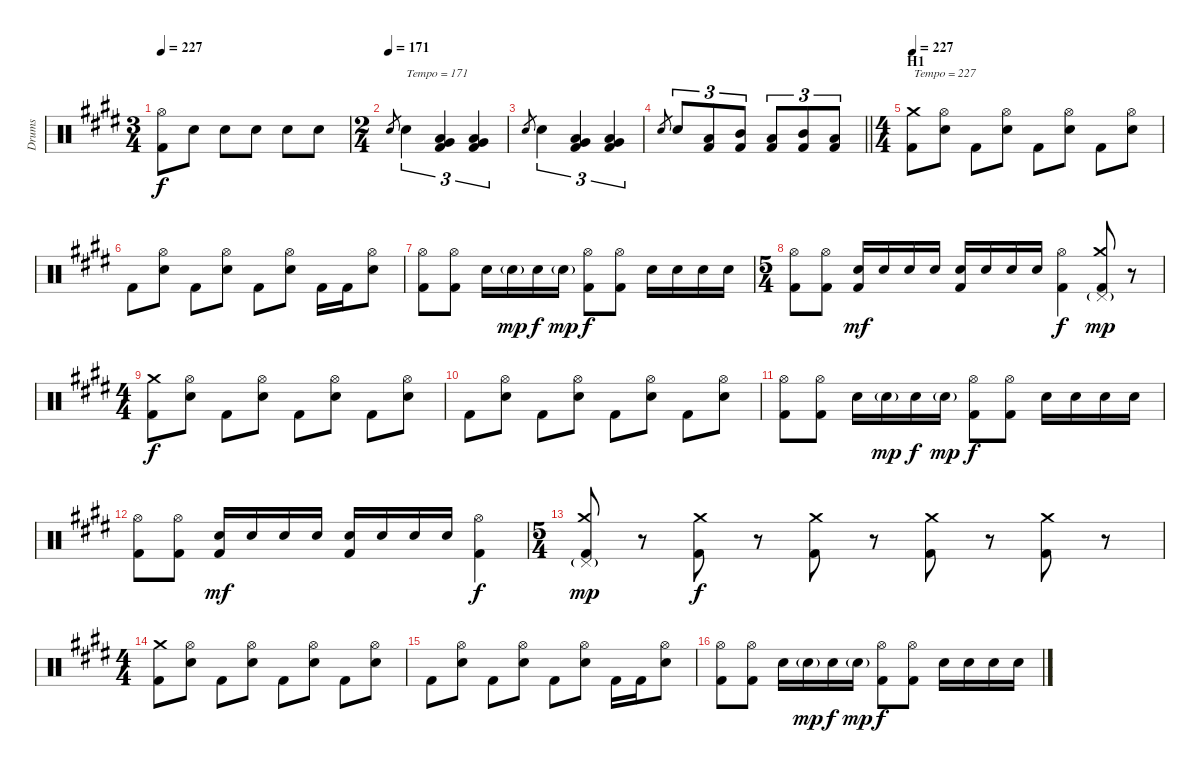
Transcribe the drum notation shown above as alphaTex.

\track ("Drums" "Drums") {instrument percussion}
\staff {score}
\articulation defaults
\ts (3 4)
\tempo 227
\clef neutral
\ks c#minor
("Hi-Hat (open)" "Kick (hit) 2").8{dy f} "Snare (hit) 2".8 "Snare (hit) 2".8 "Snare (hit) 2".8 "Snare (hit) 2".8 "Snare (hit) 2".8 |
\ts (2 4)
\tempo (171)
"Snare (hit) 2".8{gr} "Snare (hit) 2".4{tu (3 2) txt "Tempo = 171"} ("Low Tom (hit)" "Very Low Tom (hit)" "Kick (hit) 2").4{tu (3 2)} ("Low Tom (hit)" "Very Low Tom (hit)" "Kick (hit) 2").4{tu (3 2)} |
"Snare (hit) 2".8{gr} "Snare (hit) 2".4{tu (3 2)} ("Low Tom (hit)" "Very Low Tom (hit)" "Kick (hit) 2").4{tu (3 2)} ("Low Tom (hit)" "Very Low Tom (hit)" "Kick (hit) 2").4{tu (3 2)} |
\barLineRight lightlight "Snare (hit) 2".8{gr} "Snare (hit) 2".8{tu (3 2)}
("Low Tom (hit)" "Kick (hit) 2").8{tu (3 2)} ("Mid Tom (hit)" "Kick (hit) 2").8{tu (3 2)} ("Low Tom (hit)" "Kick (hit) 2").8{tu (3 2)} ("Mid Tom (hit)" "Kick (hit) 2").8{tu (3 2)} ("Low Tom (hit)" "Kick (hit) 2").8{tu (3 2)} |
\ts (4 4)
\section ("" "H1")
\tempo 227
("Crash medium (hit)" "Kick (hit) 2").8{txt "Tempo = 227"} ("Hi-Hat (open)" "Snare (hit) 2").8 "Kick (hit) 2".8 ("Hi-Hat (open)" "Snare (hit) 2").8 "Kick (hit) 2".8 ("Hi-Hat (open)" "Snare (hit) 2").8 "Kick (hit) 2".8 ("Hi-Hat (open)" "Snare (hit) 2").8 |
"Kick (hit) 2".8 ("Hi-Hat (open)" "Snare (hit) 2").8 "Kick (hit) 2".8 ("Hi-Hat (open)" "Snare (hit) 2").8 "Kick (hit) 2".8 ("Hi-Hat (open)" "Snare (hit) 2").8 "Kick (hit) 2".16 "Kick (hit) 2".16 ("Hi-Hat (open)" "Snare (hit) 2").8 |
("Hi-Hat (open)" "Kick (hit) 2").8 ("Hi-Hat (open)" "Kick (hit) 2").8 "Snare (hit) 2".16 "Snare (hit) 2"{g}.16{dy mp} "Snare (hit) 2".16{dy f} "Snare (hit) 2"{g}.16{dy mp} ("Hi-Hat (open)" "Kick (hit) 2").8{dy f} ("Hi-Hat (open)" "Kick (hit) 2").8 "Snare (hit) 2".16 "Snare (hit) 2".16 "Snare (hit) 2".16 "Snare (hit) 2".16 |
\ts (5 4)
("Hi-Hat (open)" "Kick (hit) 2").8 ("Hi-Hat (open)" "Kick (hit) 2").8 ("Snare (hit) 2" "Kick (hit) 2").16{dy mf} "Snare (hit) 2".16 "Snare (hit) 2".16 "Snare (hit) 2".16 ("Snare (hit) 2" "Kick (hit) 2").16 "Snare (hit) 2".16 "Snare (hit) 2".16 "Snare (hit) 2".16 ("Hi-Hat (open)" "Kick (hit) 2").4{dy f} ("Crash medium (hit)" "Pedal Hi-Hat (hit)"{g} "Kick (hit) 2").8{dy mp} r.8{volume 0} |
\ts (4 4)
("Crash medium (hit)" "Kick (hit) 2").8{dy f volume 16} ("Hi-Hat (open)" "Snare (hit) 2").8 "Kick (hit) 2".8 ("Hi-Hat (open)" "Snare (hit) 2").8 "Kick (hit) 2".8 ("Hi-Hat (open)" "Snare (hit) 2").8 "Kick (hit) 2".8 ("Hi-Hat (open)" "Snare (hit) 2").8 |
"Kick (hit) 2".8 ("Hi-Hat (open)" "Snare (hit) 2").8 "Kick (hit) 2".8 ("Hi-Hat (open)" "Snare (hit) 2").8 "Kick (hit) 2".8 ("Hi-Hat (open)" "Snare (hit) 2").8 "Kick (hit) 2".8 ("Hi-Hat (open)" "Snare (hit) 2").8 |
("Hi-Hat (open)" "Kick (hit) 2").8 ("Hi-Hat (open)" "Kick (hit) 2").8 "Snare (hit) 2".16 "Snare (hit) 2"{g}.16{dy mp} "Snare (hit) 2".16{dy f} "Snare (hit) 2"{g}.16{dy mp} ("Hi-Hat (open)" "Kick (hit) 2").8{dy f} ("Hi-Hat (open)" "Kick (hit) 2").8 "Snare (hit) 2".16 "Snare (hit) 2".16 "Snare (hit) 2".16 "Snare (hit) 2".16 |
("Hi-Hat (open)" "Kick (hit) 2").8 ("Hi-Hat (open)" "Kick (hit) 2").8 ("Snare (hit) 2" "Kick (hit) 2").16{dy mf} "Snare (hit) 2".16 "Snare (hit) 2".16 "Snare (hit) 2".16 ("Snare (hit) 2" "Kick (hit) 2").16 "Snare (hit) 2".16 "Snare (hit) 2".16 "Snare (hit) 2".16 ("Hi-Hat (open)" "Kick (hit) 2").4{dy f} |
\ts (5 4)
("Crash medium (hit)" "Pedal Hi-Hat (hit)"{g} "Kick (hit) 2").8{dy mp} r.8{volume 0} ("Crash medium (hit)" "Kick (hit) 2").8{dy f volume 16} r.8{volume 0} ("Crash medium (hit)" "Kick (hit) 2").8{volume 16} r.8{volume 0} ("Crash medium (hit)" "Kick (hit) 2").8{volume 16} r.8{volume 0} ("Crash medium (hit)" "Kick (hit) 2").8{volume 16} r.8{volume 0} |
\ts (4 4)
("Crash medium (hit)" "Kick (hit) 2").8{volume 16} ("Hi-Hat (open)" "Snare (hit) 2").8 "Kick (hit) 2".8 ("Hi-Hat (open)" "Snare (hit) 2").8 "Kick (hit) 2".8 ("Hi-Hat (open)" "Snare (hit) 2").8 "Kick (hit) 2".8 ("Hi-Hat (open)" "Snare (hit) 2").8 |
"Kick (hit) 2".8 ("Hi-Hat (open)" "Snare (hit) 2").8 "Kick (hit) 2".8 ("Hi-Hat (open)" "Snare (hit) 2").8 "Kick (hit) 2".8 ("Hi-Hat (open)" "Snare (hit) 2").8 "Kick (hit) 2".16 "Kick (hit) 2".16 ("Hi-Hat (open)" "Snare (hit) 2").8 |
("Hi-Hat (open)" "Kick (hit) 2").8 ("Hi-Hat (open)" "Kick (hit) 2").8 "Snare (hit) 2".16 "Snare (hit) 2"{g}.16{dy mp} "Snare (hit) 2".16{dy f} "Snare (hit) 2"{g}.16{dy mp} ("Hi-Hat (open)" "Kick (hit) 2").8{dy f} ("Hi-Hat (open)" "Kick (hit) 2").8 "Snare (hit) 2".16 "Snare (hit) 2".16 "Snare (hit) 2".16 "Snare (hit) 2".16
